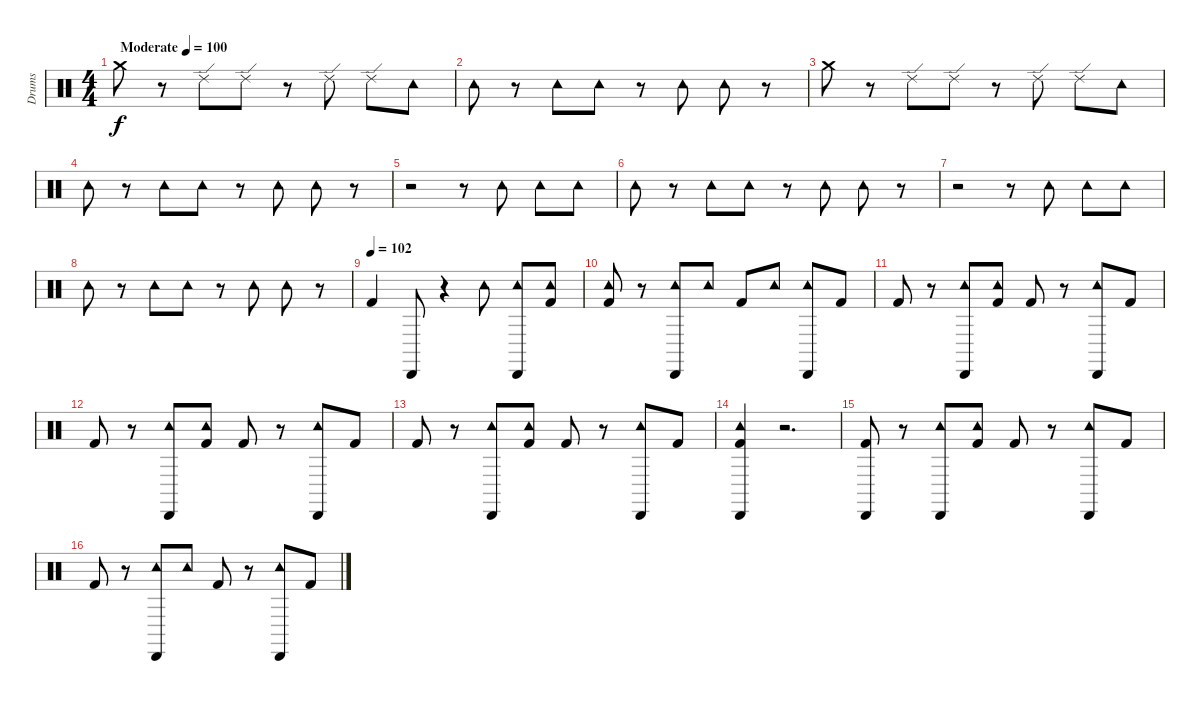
\track ("Drums" "Drums") {instrument percussion}
\staff {score}
\articulation defaults
\ts (4 4)
\tempo (100 "Moderate")
\clef neutral
\ks c "Crash medium (hit)".8{dy f}
r.8 "Ride (edge) 2".8 "Ride (edge) 2".8 r.8 "Ride (edge) 2".8 "Ride (edge) 2".8 "Tambourine (hit)".8 |
"Tambourine (hit)".8 r.8 "Tambourine (hit)".8 "Tambourine (hit)".8 r.8 "Tambourine (hit)".8 "Tambourine (hit)".8 r.8 |
"Crash medium (hit)".8 r.8 "Ride (edge) 2".8 "Ride (edge) 2".8 r.8 "Ride (edge) 2".8 "Ride (edge) 2".8 "Tambourine (hit)".8 |
"Tambourine (hit)".8 r.8 "Tambourine (hit)".8 "Tambourine (hit)".8 r.8 "Tambourine (hit)".8 "Tambourine (hit)".8 r.8 |
r.2 r.8 "Tambourine (hit)".8 "Tambourine (hit)".8 "Tambourine (hit)".8 |
"Tambourine (hit)".8 r.8 "Tambourine (hit)".8 "Tambourine (hit)".8 r.8 "Tambourine (hit)".8 "Tambourine (hit)".8 r.8 |
r.2 r.8 "Tambourine (hit)".8 "Tambourine (hit)".8 "Tambourine (hit)".8 |
"Tambourine (hit)".8 r.8 "Tambourine (hit)".8 "Tambourine (hit)".8 r.8 "Tambourine (hit)".8 "Tambourine (hit)".8 r.8 |
\tempo (102)
"Kick (hit) 2".4 "Cabasa (hit)".8 r.4 "Tambourine (hit)".8 ("Cabasa (hit)" "Tambourine (hit)").8 ("Kick (hit) 2" "Tambourine (hit)").8 |
("Kick (hit) 2" "Tambourine (hit)").8 r.8 ("Cabasa (hit)" "Tambourine (hit)").8 "Tambourine (hit)".8 "Kick (hit) 2".8 "Tambourine (hit)".8 ("Cabasa (hit)" "Tambourine (hit)").8 "Kick (hit) 2".8 |
"Kick (hit) 2".8 r.8 ("Tambourine (hit)" "Cabasa (hit)").8 ("Tambourine (hit)" "Kick (hit) 2").8 "Kick (hit) 2".8 r.8 ("Tambourine (hit)" "Cabasa (hit)").8 "Kick (hit) 2".8 |
"Kick (hit) 2".8 r.8 ("Tambourine (hit)" "Cabasa (hit)").8 ("Tambourine (hit)" "Kick (hit) 2").8 "Kick (hit) 2".8 r.8 ("Tambourine (hit)" "Cabasa (hit)").8 "Kick (hit) 2".8 |
"Kick (hit) 2".8 r.8 ("Tambourine (hit)" "Cabasa (hit)").8 ("Tambourine (hit)" "Kick (hit) 2").8 "Kick (hit) 2".8 r.8 ("Tambourine (hit)" "Cabasa (hit)").8 "Kick (hit) 2".8 |
("Cabasa (hit)" "Tambourine (hit)" "Kick (hit) 2").4 r.2{d} |
("Cabasa (hit)" "Kick (hit) 2").8 r.8 ("Tambourine (hit)" "Cabasa (hit)").8 ("Tambourine (hit)" "Kick (hit) 2").8 "Kick (hit) 2".8 r.8 ("Tambourine (hit)" "Cabasa (hit)").8 "Kick (hit) 2".8 |
"Kick (hit) 2".8 r.8 ("Tambourine (hit)" "Cabasa (hit)").8 "Tambourine (hit)".8 "Kick (hit) 2".8 r.8 ("Tambourine (hit)" "Cabasa (hit)").8 "Kick (hit) 2".8
